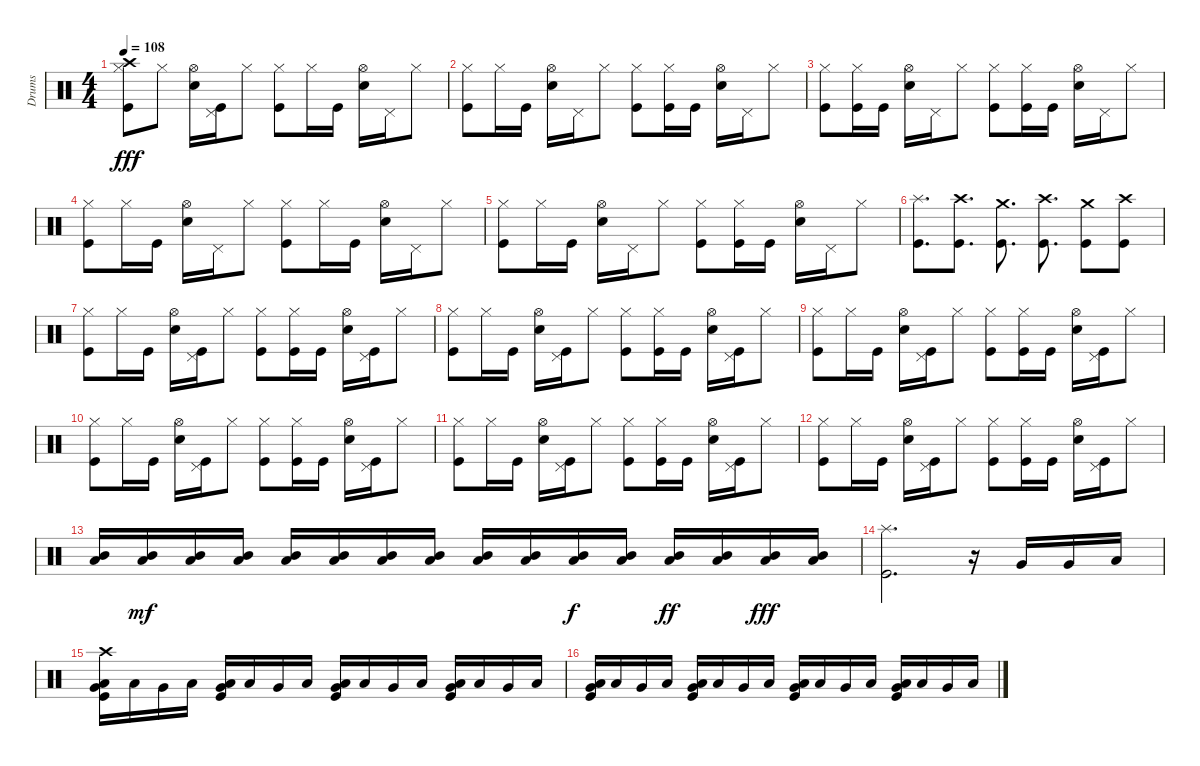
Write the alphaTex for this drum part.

\track ("Drums" "Drums") {instrument percussion}
\staff {score}
\articulation defaults
\ts (4 4)
\tempo 108
\clef neutral
\ks c
("Hi-Hat (closed)" "Crash high (hit)" "Kick (hit)").8{dy fff} "Hi-Hat (closed)".8 ("Hi-Hat (open)" "Snare (hit) 2").16 ("Pedal Hi-Hat (hit)" "Kick (hit)").16 "Hi-Hat (closed)".8 ("Hi-Hat (closed)" "Kick (hit)").8 "Hi-Hat (closed)".16 "Kick (hit)".16 ("Hi-Hat (open)" "Snare (hit) 2").16 "Pedal Hi-Hat (hit)".16 "Hi-Hat (closed)".8 |
("Hi-Hat (closed)" "Kick (hit)").8 "Hi-Hat (closed)".16 "Kick (hit)".16 ("Hi-Hat (open)" "Snare (hit) 2").16 "Pedal Hi-Hat (hit)".16 "Hi-Hat (closed)".8 ("Hi-Hat (closed)" "Kick (hit)").8 ("Hi-Hat (closed)" "Kick (hit)").16 "Kick (hit)".16 ("Hi-Hat (open)" "Snare (hit) 2").16 "Pedal Hi-Hat (hit)".16 "Hi-Hat (closed)".8 |
("Hi-Hat (closed)" "Kick (hit)").8 ("Hi-Hat (closed)" "Kick (hit)").16 "Kick (hit)".16 ("Hi-Hat (open)" "Snare (hit) 2").16 "Pedal Hi-Hat (hit)".16 "Hi-Hat (closed)".8 ("Hi-Hat (closed)" "Kick (hit)").8 ("Hi-Hat (closed)" "Kick (hit)").16 "Kick (hit)".16 ("Hi-Hat (open)" "Snare (hit) 2").16 "Pedal Hi-Hat (hit)".16 "Hi-Hat (closed)".8 |
("Hi-Hat (closed)" "Kick (hit)").8 "Hi-Hat (closed)".16 "Kick (hit)".16 ("Hi-Hat (open)" "Snare (hit) 2").16 "Pedal Hi-Hat (hit)".16 "Hi-Hat (closed)".8 ("Hi-Hat (closed)" "Kick (hit)").8 "Hi-Hat (closed)".16 "Kick (hit)".16 ("Hi-Hat (open)" "Snare (hit) 2").16 "Pedal Hi-Hat (hit)".16 "Hi-Hat (closed)".8 |
("Hi-Hat (closed)" "Kick (hit)").8 "Hi-Hat (closed)".16 "Kick (hit)".16 ("Hi-Hat (open)" "Snare (hit) 2").16 "Pedal Hi-Hat (hit)".16 "Hi-Hat (closed)".8 ("Hi-Hat (closed)" "Kick (hit)").8 ("Hi-Hat (closed)" "Kick (hit)").16 "Kick (hit)".16 ("Hi-Hat (open)" "Snare (hit) 2").16 "Pedal Hi-Hat (hit)".16 "Hi-Hat (closed)".8 |
("Splash (hit)" "Kick (hit)").8{d} ("Crash high (hit)" "Kick (hit)").8{d} ("Crash medium (hit)" "Kick (hit)").8{d} ("Crash high (hit)" "Kick (hit)").8{d} ("Crash medium (hit)" "Kick (hit)").8 ("Crash high (hit)" "Kick (hit)").8 |
("Hi-Hat (closed)" "Kick (hit)").8 "Hi-Hat (closed)".16 "Kick (hit)".16 ("Hi-Hat (open)" "Snare (hit) 2").16 ("Pedal Hi-Hat (hit)" "Kick (hit)").16 "Hi-Hat (closed)".8 ("Hi-Hat (closed)" "Kick (hit)").8 ("Hi-Hat (closed)" "Kick (hit)").16 "Kick (hit)".16 ("Hi-Hat (open)" "Snare (hit) 2").16 ("Pedal Hi-Hat (hit)" "Kick (hit)").16 "Hi-Hat (closed)".8 |
("Hi-Hat (closed)" "Kick (hit)").8 "Hi-Hat (closed)".16 "Kick (hit)".16 ("Hi-Hat (open)" "Snare (hit) 2").16 ("Pedal Hi-Hat (hit)" "Kick (hit)").16 "Hi-Hat (closed)".8 ("Hi-Hat (closed)" "Kick (hit)").8 ("Hi-Hat (closed)" "Kick (hit)").16 "Kick (hit)".16 ("Hi-Hat (open)" "Snare (hit) 2").16 ("Pedal Hi-Hat (hit)" "Kick (hit)").16 "Hi-Hat (closed)".8 |
("Hi-Hat (closed)" "Kick (hit)").8 "Hi-Hat (closed)".16 "Kick (hit)".16 ("Hi-Hat (open)" "Snare (hit) 2").16 ("Pedal Hi-Hat (hit)" "Kick (hit)").16 "Hi-Hat (closed)".8 ("Hi-Hat (closed)" "Kick (hit)").8 ("Hi-Hat (closed)" "Kick (hit)").16 "Kick (hit)".16 ("Hi-Hat (open)" "Snare (hit) 2").16 ("Pedal Hi-Hat (hit)" "Kick (hit)").16 "Hi-Hat (closed)".8 |
("Hi-Hat (closed)" "Kick (hit)").8 "Hi-Hat (closed)".16 "Kick (hit)".16 ("Hi-Hat (open)" "Snare (hit) 2").16 ("Pedal Hi-Hat (hit)" "Kick (hit)").16 "Hi-Hat (closed)".8 ("Hi-Hat (closed)" "Kick (hit)").8 ("Hi-Hat (closed)" "Kick (hit)").16 "Kick (hit)".16 ("Hi-Hat (open)" "Snare (hit) 2").16 ("Pedal Hi-Hat (hit)" "Kick (hit)").16 "Hi-Hat (closed)".8 |
("Hi-Hat (closed)" "Kick (hit)").8 "Hi-Hat (closed)".16 "Kick (hit)".16 ("Hi-Hat (open)" "Snare (hit) 2").16 ("Pedal Hi-Hat (hit)" "Kick (hit)").16 "Hi-Hat (closed)".8 ("Hi-Hat (closed)" "Kick (hit)").8 ("Hi-Hat (closed)" "Kick (hit)").16 "Kick (hit)".16 ("Hi-Hat (open)" "Snare (hit) 2").16 ("Pedal Hi-Hat (hit)" "Kick (hit)").16 "Hi-Hat (closed)".8 |
("Hi-Hat (closed)" "Kick (hit)").8 "Hi-Hat (closed)".16 "Kick (hit)".16 ("Hi-Hat (open)" "Snare (hit) 2").16 ("Pedal Hi-Hat (hit)" "Kick (hit)").16 "Hi-Hat (closed)".8 ("Hi-Hat (closed)" "Kick (hit)").8 ("Hi-Hat (closed)" "Kick (hit)").16 "Kick (hit)".16 ("Hi-Hat (open)" "Snare (hit) 2").16 ("Pedal Hi-Hat (hit)" "Kick (hit)").16 "Hi-Hat (closed)".8 |
("Mid Tom (hit)" "Low Floor Tom (hit)").16 ("Mid Tom (hit)" "Low Floor Tom (hit)").16{dy mf} ("Mid Tom (hit)" "Low Floor Tom (hit)").16 ("Mid Tom (hit)" "Low Floor Tom (hit)").16 ("Mid Tom (hit)" "Low Floor Tom (hit)").16 ("Mid Tom (hit)" "Low Floor Tom (hit)").16 ("Mid Tom (hit)" "Low Floor Tom (hit)").16 ("Mid Tom (hit)" "Low Floor Tom (hit)").16 ("Mid Tom (hit)" "Low Floor Tom (hit)").16 ("Mid Tom (hit)" "Low Floor Tom (hit)").16 ("Mid Tom (hit)" "Low Floor Tom (hit)").16{dy f} ("Mid Tom (hit)" "Low Floor Tom (hit)").16 ("Mid Tom (hit)" "Low Floor Tom (hit)").16{dy ff} ("Mid Tom (hit)" "Low Floor Tom (hit)").16 ("Mid Tom (hit)" "Low Floor Tom (hit)").16{dy fff} ("Mid Tom (hit)" "Low Floor Tom (hit)").16 |
("Splash (hit)" "Kick (hit)").2{d} r.16 "Very Low Tom (hit)".16 "Very Low Tom (hit)".16 "Low Floor Tom (hit)".16 |
("Crash high (hit)" "Very Low Tom (hit)" "Low Floor Tom (hit)" "Kick (hit)").16 "Low Tom (hit)".16 "Very Low Tom (hit)".16 "Low Floor Tom (hit)".16 ("Very Low Tom (hit)" "Low Floor Tom (hit)" "Kick (hit)").16 "Low Tom (hit)".16 "Very Low Tom (hit)".16 "Low Floor Tom (hit)".16 ("Very Low Tom (hit)" "Low Floor Tom (hit)" "Kick (hit)").16 "Low Tom (hit)".16 "Very Low Tom (hit)".16 "Low Floor Tom (hit)".16 ("Very Low Tom (hit)" "Low Floor Tom (hit)" "Kick (hit)").16 "Low Tom (hit)".16 "Very Low Tom (hit)".16 "Low Floor Tom (hit)".16 |
("Very Low Tom (hit)" "Low Floor Tom (hit)" "Kick (hit)").16 "Low Tom (hit)".16 "Very Low Tom (hit)".16 "Low Floor Tom (hit)".16 ("Very Low Tom (hit)" "Low Floor Tom (hit)" "Kick (hit)").16 "Low Tom (hit)".16 "Very Low Tom (hit)".16 "Low Floor Tom (hit)".16 ("Very Low Tom (hit)" "Low Floor Tom (hit)" "Kick (hit)").16 "Low Tom (hit)".16 "Very Low Tom (hit)".16 "Low Floor Tom (hit)".16 ("Very Low Tom (hit)" "Low Floor Tom (hit)" "Kick (hit)").16 "Low Tom (hit)".16 "Very Low Tom (hit)".16 "Low Floor Tom (hit)".16
